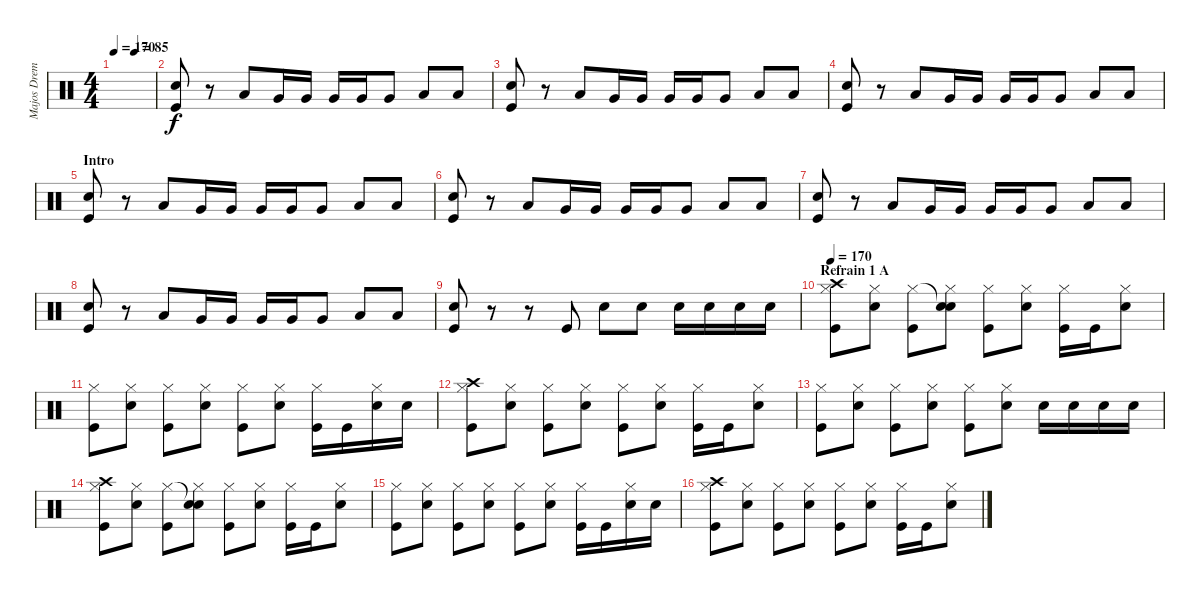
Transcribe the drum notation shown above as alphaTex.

\track ("Majos Dremmelei" "Majos Drem") {instrument percussion}
\staff {score}
\articulation defaults
\ts (4 4)
\tempo 170
\tempo (85 0.5)
\tempo 170
\clef neutral
\ks c
|
("Kick (hit)" "Snare (hit) 2").8 r.8 "Low Tom (hit)".8 "Very Low Tom (hit)".16 "Very Low Tom (hit)".16 "Very Low Tom (hit)".16 "Very Low Tom (hit)".16 "Very Low Tom (hit)".8 "Low Floor Tom (hit)".8 "Low Floor Tom (hit)".8 |
("Kick (hit)" "Snare (hit) 2").8 r.8 "Low Tom (hit)".8 "Very Low Tom (hit)".16 "Very Low Tom (hit)".16 "Very Low Tom (hit)".16 "Very Low Tom (hit)".16 "Very Low Tom (hit)".8 "Low Floor Tom (hit)".8 "Low Floor Tom (hit)".8 |
("Kick (hit)" "Snare (hit) 2").8 r.8 "Low Tom (hit)".8 "Very Low Tom (hit)".16 "Very Low Tom (hit)".16 "Very Low Tom (hit)".16 "Very Low Tom (hit)".16 "Very Low Tom (hit)".8 "Low Floor Tom (hit)".8 "Low Floor Tom (hit)".8 |
\section ("" "Intro")
("Kick (hit)" "Snare (hit) 2").8 r.8 "Low Tom (hit)".8 "Very Low Tom (hit)".16 "Very Low Tom (hit)".16 "Very Low Tom (hit)".16 "Very Low Tom (hit)".16 "Very Low Tom (hit)".8 "Low Floor Tom (hit)".8 "Low Floor Tom (hit)".8 |
("Kick (hit)" "Snare (hit) 2").8 r.8 "Low Tom (hit)".8 "Very Low Tom (hit)".16 "Very Low Tom (hit)".16 "Very Low Tom (hit)".16 "Very Low Tom (hit)".16 "Very Low Tom (hit)".8 "Low Floor Tom (hit)".8 "Low Floor Tom (hit)".8 |
("Kick (hit)" "Snare (hit) 2").8 r.8 "Low Tom (hit)".8 "Very Low Tom (hit)".16 "Very Low Tom (hit)".16 "Very Low Tom (hit)".16 "Very Low Tom (hit)".16 "Very Low Tom (hit)".8 "Low Floor Tom (hit)".8 "Low Floor Tom (hit)".8 |
("Kick (hit)" "Snare (hit) 2").8 r.8 "Low Tom (hit)".8 "Very Low Tom (hit)".16 "Very Low Tom (hit)".16 "Very Low Tom (hit)".16 "Very Low Tom (hit)".16 "Very Low Tom (hit)".8 "Low Floor Tom (hit)".8 "Low Floor Tom (hit)".8 |
("Kick (hit)" "Snare (hit) 2").8 r.8 r.8 "Kick (hit)".8 "Electric Snare (hit)".8 "Electric Snare (hit)".8 "Electric Snare (hit)".16 "Electric Snare (hit)".16 "Electric Snare (hit)".16 "Electric Snare (hit)".16 |
\section ("" "Refrain 1 A")
\tempo 170
("Crash high (hit)" "Hi-Hat (closed)" "Kick (hit)").8 ("Hi-Hat (closed)" "Electric Snare (hit)").8 ("Hi-Hat (closed)" "Kick (hit)").8 ("Snare (hit)"{t} "Hi-Hat (closed)" "Electric Snare (hit)").8 ("Hi-Hat (closed)" "Kick (hit)").8 ("Hi-Hat (closed)" "Electric Snare (hit)").8 ("Hi-Hat (closed)" "Kick (hit)").16 "Kick (hit)".16 ("Hi-Hat (closed)" "Electric Snare (hit)").8 |
("Hi-Hat (closed)" "Kick (hit)").8 ("Hi-Hat (closed)" "Electric Snare (hit)").8 ("Hi-Hat (closed)" "Kick (hit)").8 ("Hi-Hat (closed)" "Electric Snare (hit)").8 ("Hi-Hat (closed)" "Kick (hit)").8 ("Hi-Hat (closed)" "Electric Snare (hit)").8 ("Hi-Hat (closed)" "Kick (hit)").16 "Kick (hit)".16 ("Hi-Hat (closed)" "Electric Snare (hit)").16 "Electric Snare (hit)".16 |
("Crash high (hit)" "Hi-Hat (closed)" "Kick (hit)").8 ("Hi-Hat (closed)" "Electric Snare (hit)").8 ("Hi-Hat (closed)" "Kick (hit)").8 ("Hi-Hat (closed)" "Electric Snare (hit)").8 ("Hi-Hat (closed)" "Kick (hit)").8 ("Hi-Hat (closed)" "Electric Snare (hit)").8 ("Hi-Hat (closed)" "Kick (hit)").16 "Kick (hit)".16 ("Hi-Hat (closed)" "Electric Snare (hit)").8 |
("Hi-Hat (closed)" "Kick (hit)").8 ("Hi-Hat (closed)" "Electric Snare (hit)").8 ("Hi-Hat (closed)" "Kick (hit)").8 ("Hi-Hat (closed)" "Electric Snare (hit)").8 ("Hi-Hat (closed)" "Kick (hit)").8 ("Hi-Hat (closed)" "Electric Snare (hit)").8 "Electric Snare (hit)".16 "Electric Snare (hit)".16 "Electric Snare (hit)".16 "Electric Snare (hit)".16 |
("Crash high (hit)" "Hi-Hat (closed)" "Kick (hit)").8 ("Hi-Hat (closed)" "Electric Snare (hit)").8 ("Hi-Hat (closed)" "Kick (hit)").8 ("Snare (hit)"{t} "Hi-Hat (closed)" "Electric Snare (hit)").8 ("Hi-Hat (closed)" "Kick (hit)").8 ("Hi-Hat (closed)" "Electric Snare (hit)").8 ("Hi-Hat (closed)" "Kick (hit)").16 "Kick (hit)".16 ("Hi-Hat (closed)" "Electric Snare (hit)").8 |
("Hi-Hat (closed)" "Kick (hit)").8 ("Hi-Hat (closed)" "Electric Snare (hit)").8 ("Hi-Hat (closed)" "Kick (hit)").8 ("Hi-Hat (closed)" "Electric Snare (hit)").8 ("Hi-Hat (closed)" "Kick (hit)").8 ("Hi-Hat (closed)" "Electric Snare (hit)").8 ("Hi-Hat (closed)" "Kick (hit)").16 "Kick (hit)".16 ("Hi-Hat (closed)" "Electric Snare (hit)").16 "Electric Snare (hit)".16 |
("Crash high (hit)" "Hi-Hat (closed)" "Kick (hit)").8 ("Hi-Hat (closed)" "Electric Snare (hit)").8 ("Hi-Hat (closed)" "Kick (hit)").8 ("Hi-Hat (closed)" "Electric Snare (hit)").8 ("Hi-Hat (closed)" "Kick (hit)").8 ("Hi-Hat (closed)" "Electric Snare (hit)").8 ("Hi-Hat (closed)" "Kick (hit)").16 "Kick (hit)".16 ("Hi-Hat (closed)" "Electric Snare (hit)").8
